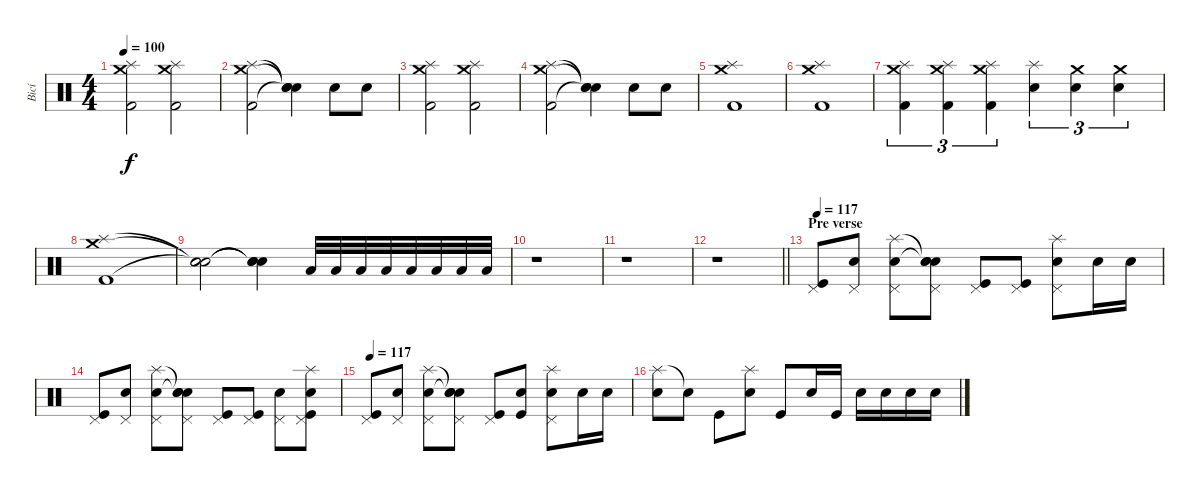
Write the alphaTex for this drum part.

\track ("Bicí" "Bicí") {instrument percussion}
\staff {score}
\articulation defaults
\ts (4 4)
\tempo 100
\clef neutral
\ks c
("Splash (hit)" "Crash medium (hit)" "Kick (hit) 2").2{dy f} ("Splash (hit)" "Crash medium (hit)" "Kick (hit) 2").2 |
("Splash (hit)" "Crash medium (hit)" "Kick (hit) 2").2 ("Snare (hit)"{t} "Snare (hit)"{t} "Snare (hit)"{t}).4 "Electric Snare (hit)".8 "Electric Snare (hit)".8 |
("Splash (hit)" "Crash medium (hit)" "Kick (hit) 2").2 ("Splash (hit)" "Crash medium (hit)" "Kick (hit) 2").2 |
("Splash (hit)" "Crash medium (hit)" "Kick (hit) 2").2 ("Snare (hit)"{t} "Snare (hit)"{t} "Snare (hit)"{t}).4 "Electric Snare (hit)".8 "Electric Snare (hit)".8 |
("Splash (hit)" "Crash medium (hit)" "Kick (hit) 2").1 |
("Splash (hit)" "Crash medium (hit)" "Kick (hit) 2").1 |
("Splash (hit)" "Crash medium (hit)" "Kick (hit) 2").4{tu (3 2)} ("Splash (hit)" "Crash medium (hit)" "Kick (hit) 2").4{tu (3 2)} ("Splash (hit)" "Crash medium (hit)" "Kick (hit) 2").4{tu (3 2)} ("Splash (hit)" "Electric Snare (hit)").4{tu (3 2)} ("Crash medium (hit)" "Electric Snare (hit)").4{tu (3 2)} ("Crash medium (hit)" "Electric Snare (hit)").4{tu (3 2)} |
("Splash (hit)" "Crash medium (hit)" "Kick (hit) 2").1 |
("Snare (hit)"{t} "Snare (hit)"{t} "Snare (hit)"{t}).2 ("Snare (hit)"{t} "Snare (hit)"{t} "Snare (hit)"{t}).4 "Low Tom (hit)".32{volume 4} "Low Tom (hit)".32 "Low Tom (hit)".32{volume 6} "Low Tom (hit)".32 "Low Tom (hit)".32{volume 8} "Low Tom (hit)".32 "Low Tom (hit)".32{volume 11} "Low Tom (hit)".32{volume 16} |
r.1 |
r.1 |
\barLineRight lightlight
r.1 |
\section ("" "Pre verse")
\tempo 117
("Pedal Hi-Hat (hit)" "Kick (hit)").8 ("Pedal Hi-Hat (hit)" "Snare (hit)").8 ("Pedal Hi-Hat (hit)" "Splash (hit)" "Electric Snare (hit)").8 ("Pedal Hi-Hat (hit)" "Snare (hit)"{t} "Snare (hit)"{t} "Snare (hit)").8 ("Pedal Hi-Hat (hit)" "Kick (hit)").8 ("Pedal Hi-Hat (hit)" "Kick (hit)").8 ("Pedal Hi-Hat (hit)" "Splash (hit)" "Electric Snare (hit)").8 "Electric Snare (hit)".16 "Electric Snare (hit)".16 |
("Pedal Hi-Hat (hit)" "Kick (hit)").8 ("Pedal Hi-Hat (hit)" "Snare (hit)").8 ("Pedal Hi-Hat (hit)" "Splash (hit)" "Electric Snare (hit)").8 ("Pedal Hi-Hat (hit)" "Snare (hit)"{t} "Snare (hit)"{t} "Snare (hit)").8 ("Pedal Hi-Hat (hit)" "Kick (hit)").8 ("Pedal Hi-Hat (hit)" "Kick (hit)").8 ("Pedal Hi-Hat (hit)" "Snare (hit)").8 ("Pedal Hi-Hat (hit)" "Electric Snare (hit)" "Splash (hit)" "Kick (hit)").8 |
\tempo 117
("Pedal Hi-Hat (hit)" "Kick (hit)").8 ("Pedal Hi-Hat (hit)" "Snare (hit)").8 ("Pedal Hi-Hat (hit)" "Splash (hit)" "Electric Snare (hit)").8 ("Pedal Hi-Hat (hit)" "Snare (hit)"{t} "Snare (hit)"{t} "Snare (hit)").8 ("Pedal Hi-Hat (hit)" "Kick (hit)").8 ("Snare (hit)" "Kick (hit)").8 ("Pedal Hi-Hat (hit)" "Splash (hit)" "Electric Snare (hit)").8 "Electric Snare (hit)".16 "Electric Snare (hit)".16 |
("Splash (hit)" "Electric Snare (hit)").8 "Snare (hit)"{t}.8 "Kick (hit)".8 ("Splash (hit)" "Electric Snare (hit)").8 "Kick (hit)".8 "Electric Snare (hit)".16 "Kick (hit)".16 "Electric Snare (hit)".16 "Electric Snare (hit)".16 "Electric Snare (hit)".16 "Electric Snare (hit)".16
